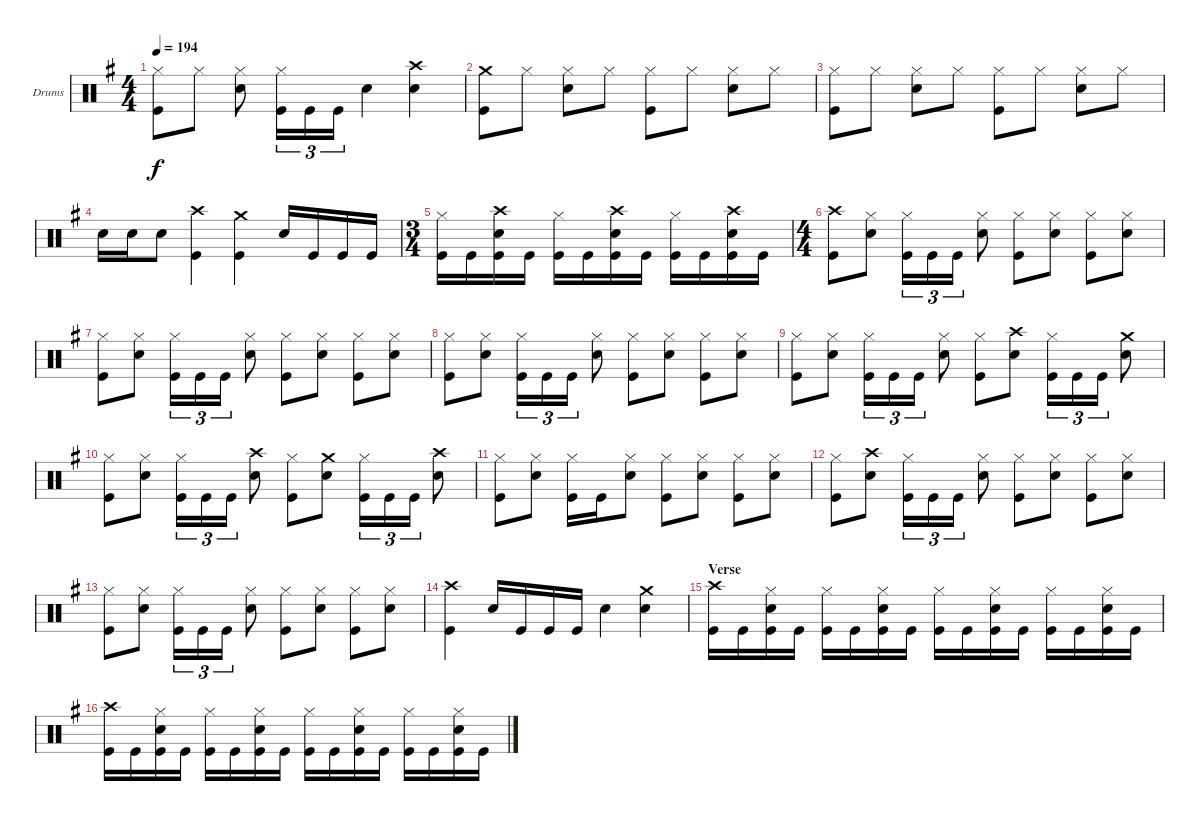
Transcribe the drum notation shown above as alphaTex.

\bracketExtendMode groupsimilarinstruments
\firstSystemTrackNameOrientation horizontal
\otherSystemsTrackNameOrientation horizontal
\track ("Drumkit" "Drums") {instrument percussion}
\staff {score}
\articulation defaults
\ts (4 4)
\tempo 194
\clef neutral
\scale
1.04288
\ks g
("Hi-Hat (closed)" "Kick (hit)").8{dy f} "Hi-Hat (closed)".8 ("Hi-Hat (closed)" "Snare (hit) 2").8 ("Hi-Hat (closed)" "Kick (hit)").16{tu (3 2)} "Kick (hit)".16{tu (3 2)} "Kick (hit)".16{tu (3 2)} "Snare (hit) 2".4 ("Crash high (hit)" "Snare (hit) 2").4 |
\scale
0.957125 ("Crash medium (hit)" "Kick (hit)").8 "Hi-Hat (closed)".8 ("Hi-Hat (closed)" "Snare (hit) 2").8 "Hi-Hat (closed)".8 ("Hi-Hat (closed)" "Kick (hit)").8 "Hi-Hat (closed)".8 ("Hi-Hat (closed)" "Snare (hit) 2").8 "Hi-Hat (closed)".8 |
\scale
1.04288 ("Hi-Hat (closed)" "Kick (hit)").8 "Hi-Hat (closed)".8 ("Hi-Hat (closed)" "Snare (hit) 2").8 "Hi-Hat (closed)".8 ("Hi-Hat (closed)" "Kick (hit)").8 "Hi-Hat (closed)".8 ("Hi-Hat (closed)" "Snare (hit) 2").8 "Hi-Hat (closed)".8 |
\scale
0.957125 "Snare (hit) 2".16 "Snare (hit) 2".16 "Snare (hit) 2".8 ("Crash high (hit)" "Kick (hit)").4 ("Crash medium (hit)" "Kick (hit)").4 "Snare (hit) 2".16 "Kick (hit)".16 "Kick (hit)".16 "Kick (hit)".16 |
\ts (3 4)
\scale
1.04288 ("Hi-Hat (closed)" "Kick (hit)").16 "Kick (hit)".16 ("Crash high (hit)" "Snare (hit) 2" "Kick (hit)").16 "Kick (hit)".16 ("Hi-Hat (closed)" "Kick (hit)").16 "Kick (hit)".16 ("Crash high (hit)" "Snare (hit) 2" "Kick (hit)").16 "Kick (hit)".16 ("Hi-Hat (closed)" "Kick (hit)").16 "Kick (hit)".16 ("Crash high (hit)" "Snare (hit) 2" "Kick (hit)").16 "Kick (hit)".16 |
\ts (4 4)
\scale
0.957125 ("Crash high (hit)" "Kick (hit)").8 ("Hi-Hat (closed)" "Snare (hit) 2").8 ("Hi-Hat (closed)" "Kick (hit)").16{tu (3 2)} "Kick (hit)".16{tu (3 2)} "Kick (hit)".16{tu (3 2)} ("Hi-Hat (closed)" "Snare (hit) 2").8 ("Hi-Hat (closed)" "Kick (hit)").8 ("Hi-Hat (closed)" "Snare (hit) 2").8 ("Hi-Hat (closed)" "Kick (hit)").8 ("Hi-Hat (closed)" "Snare (hit) 2").8 |
\scale
1.04288 ("Hi-Hat (closed)" "Kick (hit)").8 ("Hi-Hat (closed)" "Snare (hit) 2").8 ("Hi-Hat (closed)" "Kick (hit)").16{tu (3 2)} "Kick (hit)".16{tu (3 2)} "Kick (hit)".16{tu (3 2)} ("Hi-Hat (closed)" "Snare (hit) 2").8 ("Hi-Hat (closed)" "Kick (hit)").8 ("Hi-Hat (closed)" "Snare (hit) 2").8 ("Hi-Hat (closed)" "Kick (hit)").8 ("Hi-Hat (closed)" "Snare (hit) 2").8 |
\scale
0.957125 ("Hi-Hat (closed)" "Kick (hit)").8 ("Hi-Hat (closed)" "Snare (hit) 2").8 ("Hi-Hat (closed)" "Kick (hit)").16{tu (3 2)} "Kick (hit)".16{tu (3 2)} "Kick (hit)".16{tu (3 2)} ("Hi-Hat (closed)" "Snare (hit) 2").8 ("Hi-Hat (closed)" "Kick (hit)").8 ("Hi-Hat (closed)" "Snare (hit) 2").8 ("Hi-Hat (closed)" "Kick (hit)").8 ("Hi-Hat (closed)" "Snare (hit) 2").8 |
\scale
1.04288 ("Hi-Hat (closed)" "Kick (hit)").8 ("Hi-Hat (closed)" "Snare (hit) 2").8 ("Hi-Hat (closed)" "Kick (hit)").16{tu (3 2)} "Kick (hit)".16{tu (3 2)} "Kick (hit)".16{tu (3 2)} ("Hi-Hat (closed)" "Snare (hit) 2").8 ("Hi-Hat (closed)" "Kick (hit)").8 ("Crash high (hit)" "Snare (hit) 2").8 ("Hi-Hat (closed)" "Kick (hit)").16{tu (3 2)} "Kick (hit)".16{tu (3 2)} "Kick (hit)".16{tu (3 2)} ("Crash medium (hit)" "Snare (hit) 2").8 |
\scale
0.957125 ("Hi-Hat (closed)" "Kick (hit)").8 ("Hi-Hat (closed)" "Snare (hit) 2").8 ("Hi-Hat (closed)" "Kick (hit)").16{tu (3 2)} "Kick (hit)".16{tu (3 2)} "Kick (hit)".16{tu (3 2)} ("Crash high (hit)" "Snare (hit) 2").8 ("Hi-Hat (closed)" "Kick (hit)").8 ("Crash medium (hit)" "Snare (hit) 2").8 ("Hi-Hat (closed)" "Kick (hit)").16{tu (3 2)} "Kick (hit)".16{tu (3 2)} "Kick (hit)".16{tu (3 2)} ("Crash high (hit)" "Snare (hit) 2").8 |
\scale
1.04288 ("Hi-Hat (closed)" "Kick (hit)").8 ("Hi-Hat (closed)" "Snare (hit) 2").8 ("Hi-Hat (closed)" "Kick (hit)").16 "Kick (hit)".16 ("Hi-Hat (closed)" "Snare (hit) 2").8 ("Hi-Hat (closed)" "Kick (hit)").8 ("Hi-Hat (closed)" "Snare (hit) 2").8 ("Hi-Hat (closed)" "Kick (hit)").8 ("Hi-Hat (closed)" "Snare (hit) 2").8 |
\scale
0.957125 ("Hi-Hat (closed)" "Kick (hit)").8 ("Crash high (hit)" "Snare (hit) 2").8 ("Hi-Hat (closed)" "Kick (hit)").16{tu (3 2)} "Kick (hit)".16{tu (3 2)} "Kick (hit)".16{tu (3 2)} ("Hi-Hat (closed)" "Snare (hit) 2").8 ("Hi-Hat (closed)" "Kick (hit)").8 ("Hi-Hat (closed)" "Snare (hit) 2").8 ("Hi-Hat (closed)" "Kick (hit)").8 ("Hi-Hat (closed)" "Snare (hit) 2").8 |
\scale
1.04288 ("Hi-Hat (closed)" "Kick (hit)").8 ("Hi-Hat (closed)" "Snare (hit) 2").8 ("Hi-Hat (closed)" "Kick (hit)").16{tu (3 2)} "Kick (hit)".16{tu (3 2)} "Kick (hit)".16{tu (3 2)} ("Hi-Hat (closed)" "Snare (hit) 2").8 ("Hi-Hat (closed)" "Kick (hit)").8 ("Hi-Hat (closed)" "Snare (hit) 2").8 ("Hi-Hat (closed)" "Kick (hit)").8 ("Hi-Hat (closed)" "Snare (hit) 2").8 |
\scale
0.957125 ("Crash high (hit)" "Kick (hit)").4 "Snare (hit) 2".16 "Kick (hit)".16 "Kick (hit)".16 "Kick (hit)".16 "Snare (hit) 2".4 ("Crash medium (hit)" "Snare (hit) 2").4 |
\section ("" "Verse")
\scale
1.04288 ("Crash high (hit)" "Kick (hit)").16 "Kick (hit)".16 ("Hi-Hat (closed)" "Snare (hit) 2" "Kick (hit)").16 "Kick (hit)".16 ("Hi-Hat (closed)" "Kick (hit)").16 "Kick (hit)".16 ("Hi-Hat (closed)" "Snare (hit) 2" "Kick (hit)").16 "Kick (hit)".16 ("Hi-Hat (closed)" "Kick (hit)").16 "Kick (hit)".16 ("Hi-Hat (closed)" "Snare (hit) 2" "Kick (hit)").16 "Kick (hit)".16 ("Hi-Hat (closed)" "Kick (hit)").16 "Kick (hit)".16 ("Hi-Hat (closed)" "Snare (hit) 2" "Kick (hit)").16 "Kick (hit)".16 |
\scale
0.957125 ("Crash high (hit)" "Kick (hit)").16 "Kick (hit)".16 ("Hi-Hat (closed)" "Snare (hit) 2" "Kick (hit)").16 "Kick (hit)".16 ("Hi-Hat (closed)" "Kick (hit)").16 "Kick (hit)".16 ("Hi-Hat (closed)" "Snare (hit) 2" "Kick (hit)").16 "Kick (hit)".16 ("Hi-Hat (closed)" "Kick (hit)").16 "Kick (hit)".16 ("Hi-Hat (closed)" "Snare (hit) 2" "Kick (hit)").16 "Kick (hit)".16 ("Hi-Hat (closed)" "Kick (hit)").16 "Kick (hit)".16 ("Hi-Hat (closed)" "Snare (hit) 2" "Kick (hit)").16 "Kick (hit)".16
